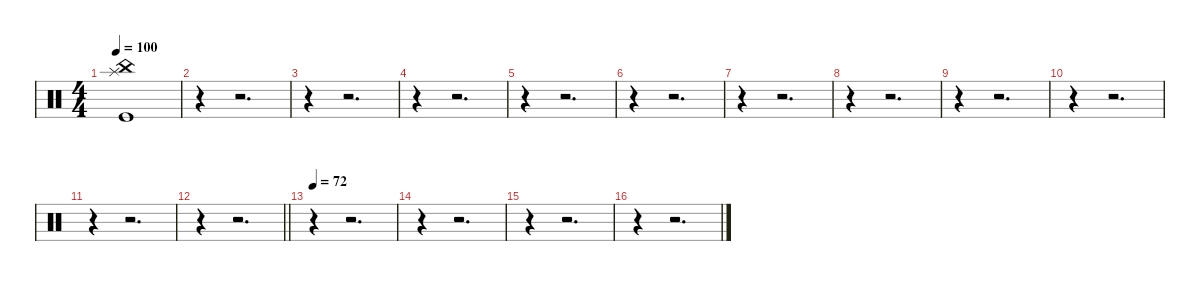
\defaultSystemsLayout 4
\hideDynamics
\bracketExtendMode nobrackets
\singleTrackTrackNamePolicy hidden
\multiTrackTrackNamePolicy hidden
\firstSystemTrackNameMode fullname
\firstSystemTrackNameOrientation horizontal
\otherSystemsTrackNameOrientation horizontal
\track ("Drums" "drm.") {instrument percussion}
\staff {score}
\articulation defaults
\ts (4 4)
\tempo 100
\clef neutral
\ks c
("Splash (hit)" "China (hit)" "Kick (hit)").1{dy f beam Down} |
r.4{beam Down} r.2{d beam Down} |
r.4{beam Down} r.2{d beam Down} |
r.4{beam Down} r.2{d beam Down} |
r.4{beam Down} r.2{d beam Down} |
r.4{beam Down} r.2{d beam Down} |
r.4{beam Down} r.2{d beam Down} |
r.4{beam Down} r.2{d beam Down} |
r.4{beam Down} r.2{d beam Down} |
r.4{beam Down} r.2{d beam Down} |
r.4{beam Down} r.2{d beam Down} |
\barLineRight lightlight
r.4{beam Down} r.2{d beam Down} |
\tempo 72
r.4{beam Down} r.2{d beam Down} |
r.4{beam Down} r.2{d beam Down} |
r.4{beam Down} r.2{d beam Down} |
r.4{beam Down} r.2{d beam Down}
